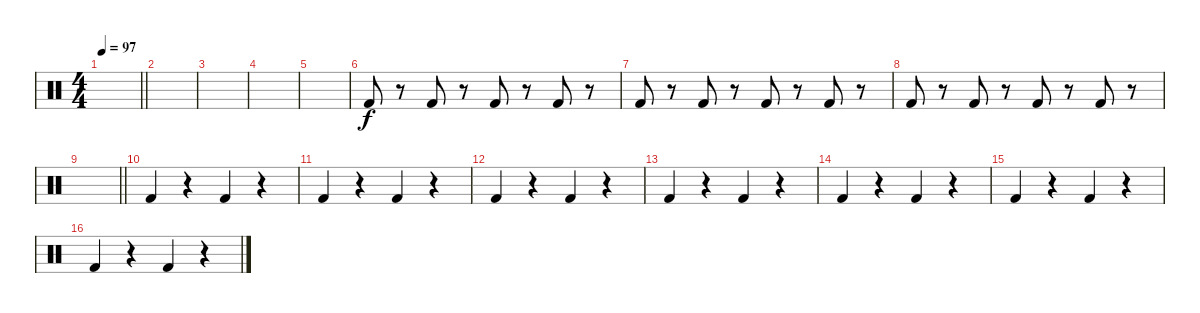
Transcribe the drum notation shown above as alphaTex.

\track "" {instrument percussion}
\staff {score}
\articulation defaults
\ts (4 4)
\tempo 97
\clef neutral
\barLineRight lightlight
\ks c
|
\section ("" "")
|
|
|
|
"Kick (hit) 2".8 r.8 "Kick (hit) 2".8 r.8 "Kick (hit) 2".8 r.8 "Kick (hit) 2".8 r.8 |
"Kick (hit) 2".8 r.8 "Kick (hit) 2".8 r.8 "Kick (hit) 2".8 r.8 "Kick (hit) 2".8 r.8 |
"Kick (hit) 2".8 r.8 "Kick (hit) 2".8 r.8 "Kick (hit) 2".8 r.8 "Kick (hit) 2".8 r.8 |
\barLineRight lightlight
|
\section ("" "")
"Kick (hit) 2".4 r.4 "Kick (hit) 2".4 r.4 |
"Kick (hit) 2".4 r.4 "Kick (hit) 2".4 r.4 |
"Kick (hit) 2".4 r.4 "Kick (hit) 2".4 r.4 |
"Kick (hit) 2".4 r.4 "Kick (hit) 2".4 r.4 |
"Kick (hit) 2".4 r.4 "Kick (hit) 2".4 r.4 |
"Kick (hit) 2".4 r.4 "Kick (hit) 2".4 r.4 |
"Kick (hit) 2".4 r.4 "Kick (hit) 2".4 r.4
